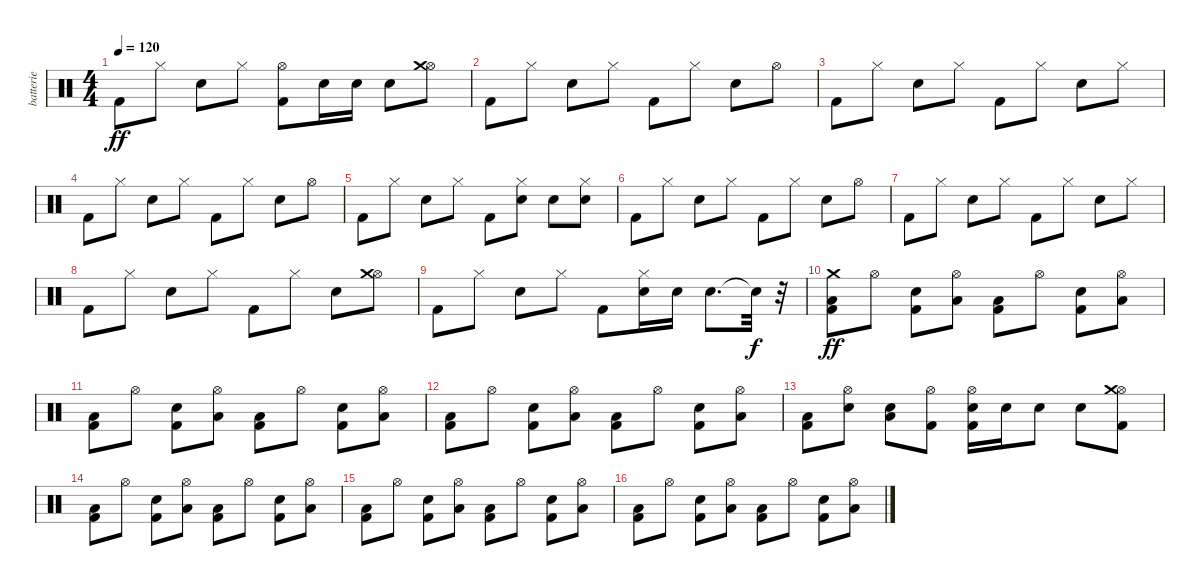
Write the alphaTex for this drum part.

\track ("batterie" "batterie") {instrument percussion}
\staff {score}
\articulation defaults
\ts (4 4)
\tempo 120
\clef neutral
\ks c "Kick (hit) 2".8{dy ff} "Hi-Hat (closed)".8 "Electric Snare (hit)".8 "Hi-Hat (closed)".8
("Kick (hit) 2" "Hi-Hat (open)").8 "Electric Snare (hit)".16 "Electric Snare (hit)".16 "Electric Snare (hit)".8 ("Hi-Hat (open)" "Crash medium (hit)").8 |
"Kick (hit) 2".8 "Hi-Hat (closed)".8 "Electric Snare (hit)".8 "Hi-Hat (closed)".8 "Kick (hit) 2".8 "Hi-Hat (closed)".8 "Electric Snare (hit)".8 "Hi-Hat (open)".8 |
"Kick (hit) 2".8 "Hi-Hat (closed)".8 "Electric Snare (hit)".8 "Hi-Hat (closed)".8 "Kick (hit) 2".8 "Hi-Hat (closed)".8 "Electric Snare (hit)".8 "Hi-Hat (closed)".8 |
"Kick (hit) 2".8 "Hi-Hat (closed)".8 "Electric Snare (hit)".8 "Hi-Hat (closed)".8 "Kick (hit) 2".8 "Hi-Hat (closed)".8 "Electric Snare (hit)".8 "Hi-Hat (open)".8 |
"Kick (hit) 2".8 "Hi-Hat (closed)".8 "Electric Snare (hit)".8 "Hi-Hat (closed)".8 "Kick (hit) 2".8 ("Electric Snare (hit)" "Hi-Hat (closed)").8 "Electric Snare (hit)".8 ("Electric Snare (hit)" "Hi-Hat (closed)").8 |
"Kick (hit) 2".8 "Hi-Hat (closed)".8 "Electric Snare (hit)".8 "Hi-Hat (closed)".8 "Kick (hit) 2".8 "Hi-Hat (closed)".8 "Electric Snare (hit)".8 "Hi-Hat (open)".8 |
"Kick (hit) 2".8 "Hi-Hat (closed)".8 "Electric Snare (hit)".8 "Hi-Hat (closed)".8 "Kick (hit) 2".8 "Hi-Hat (closed)".8 "Electric Snare (hit)".8 "Hi-Hat (closed)".8 |
"Kick (hit) 2".8 "Hi-Hat (closed)".8 "Electric Snare (hit)".8 "Hi-Hat (closed)".8 "Kick (hit) 2".8 "Hi-Hat (closed)".8 "Electric Snare (hit)".8 ("Hi-Hat (open)" "Crash medium (hit)").8 |
"Kick (hit) 2".8 "Hi-Hat (closed)".8 "Electric Snare (hit)".8 "Hi-Hat (closed)".8 "Kick (hit) 2".8 ("Electric Snare (hit)" "Hi-Hat (closed)").16 "Electric Snare (hit)".16 "Electric Snare (hit)".8{d} "Snare (hit)"{t}.32{dy f} r.32 |
("Kick (hit) 2" "Low Floor Tom (hit)" "Crash medium (hit)").8{dy ff} "Hi-Hat (open)".8 ("Kick (hit) 2" "Electric Snare (hit)").8 ("Low Floor Tom (hit)" "Hi-Hat (open)").8 ("Kick (hit) 2" "Low Floor Tom (hit)").8 "Hi-Hat (open)".8 ("Kick (hit) 2" "Electric Snare (hit)").8 ("Low Floor Tom (hit)" "Hi-Hat (open)").8 |
("Kick (hit) 2" "Low Floor Tom (hit)").8 "Hi-Hat (open)".8 ("Kick (hit) 2" "Electric Snare (hit)").8 ("Low Floor Tom (hit)" "Hi-Hat (open)").8 ("Kick (hit) 2" "Low Floor Tom (hit)").8 "Hi-Hat (open)".8 ("Kick (hit) 2" "Electric Snare (hit)").8 ("Low Floor Tom (hit)" "Hi-Hat (open)").8 |
("Kick (hit) 2" "Low Floor Tom (hit)").8 "Hi-Hat (open)".8 ("Kick (hit) 2" "Electric Snare (hit)").8 ("Low Floor Tom (hit)" "Hi-Hat (open)").8 ("Kick (hit) 2" "Low Floor Tom (hit)").8 "Hi-Hat (open)".8 ("Kick (hit) 2" "Electric Snare (hit)").8 ("Low Floor Tom (hit)" "Hi-Hat (open)").8 |
("Kick (hit) 2" "Low Floor Tom (hit)").8 ("Electric Snare (hit)" "Hi-Hat (open)").8 ("Electric Snare (hit)" "Low Floor Tom (hit)").8 ("Kick (hit) 2" "Hi-Hat (open)").8 ("Kick (hit) 2" "Electric Snare (hit)" "Hi-Hat (open)").16 "Electric Snare (hit)".16 "Electric Snare (hit)".8 "Electric Snare (hit)".8 ("Kick (hit) 2" "Hi-Hat (open)" "Crash medium (hit)").8 |
("Kick (hit) 2" "Low Floor Tom (hit)").8 "Hi-Hat (open)".8 ("Kick (hit) 2" "Electric Snare (hit)").8 ("Low Floor Tom (hit)" "Hi-Hat (open)").8 ("Kick (hit) 2" "Low Floor Tom (hit)").8 "Hi-Hat (open)".8 ("Kick (hit) 2" "Electric Snare (hit)").8 ("Low Floor Tom (hit)" "Hi-Hat (open)").8 |
("Kick (hit) 2" "Low Floor Tom (hit)").8 "Hi-Hat (open)".8 ("Kick (hit) 2" "Electric Snare (hit)").8 ("Low Floor Tom (hit)" "Hi-Hat (open)").8 ("Kick (hit) 2" "Low Floor Tom (hit)").8 "Hi-Hat (open)".8 ("Kick (hit) 2" "Electric Snare (hit)").8 ("Low Floor Tom (hit)" "Hi-Hat (open)").8 |
("Kick (hit) 2" "Low Floor Tom (hit)").8 "Hi-Hat (open)".8 ("Kick (hit) 2" "Electric Snare (hit)").8 ("Low Floor Tom (hit)" "Hi-Hat (open)").8 ("Kick (hit) 2" "Low Floor Tom (hit)").8 "Hi-Hat (open)".8 ("Kick (hit) 2" "Electric Snare (hit)").8 ("Low Floor Tom (hit)" "Hi-Hat (open)").8
